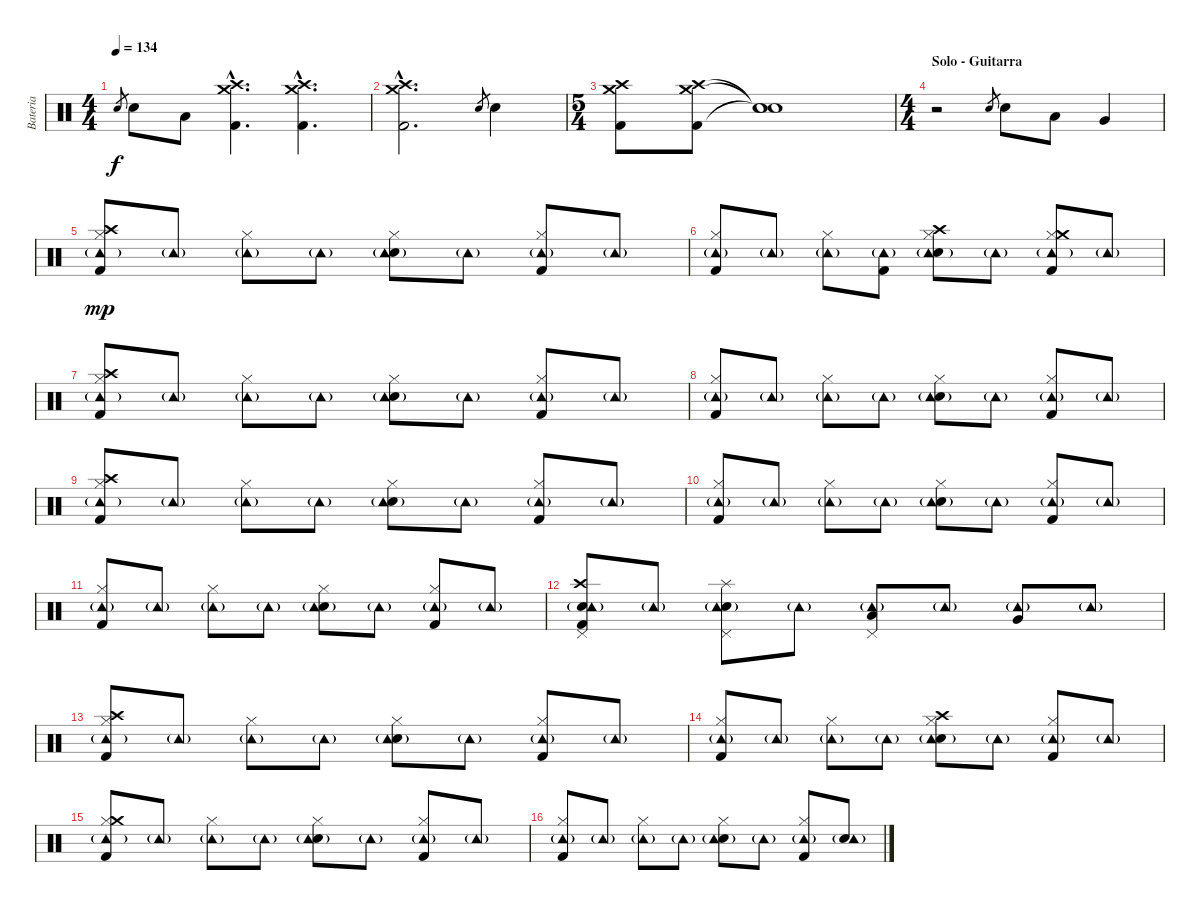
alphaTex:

\track ("Bateria" "Bateria") {instrument percussion}
\staff {score}
\articulation defaults
\ts (4 4)
\tempo 134
\clef neutral
\ks c "Electric Snare (hit)".8{gr dy f} "Electric Snare (hit)".8 "Low Tom (hit)".8
("Kick (hit) 2"{hac} "Crash medium (hit)"{hac} "Crash high (hit)"{hac}).4{d} ("Kick (hit) 2"{hac} "Crash medium (hit)"{hac} "Crash high (hit)"{hac}).4{d} |
("Kick (hit) 2"{hac} "Crash medium (hit)"{hac} "Crash high (hit)"{hac}).2{d} "Electric Snare (hit)".8{gr} "Electric Snare (hit)".4 |
\ts (5 4)
("Kick (hit) 2" "Crash medium (hit)" "Crash high (hit)").8 ("Kick (hit) 2" "Crash medium (hit)" "Crash high (hit)").8 ("Snare (hit)"{t} "Snare (hit)"{t} "Snare (hit)"{t}).1 |
\ts (4 4)
\section ("" "Solo - Guitarra")
r.2 "Electric Snare (hit)".8{gr} "Electric Snare (hit)".8 "Low Tom (hit)".8 "Very Low Tom (hit)".4 |
("Hi-Hat (closed)" "Kick (hit) 2" "Tambourine (hit)"{g} "Crash high (hit)").8{dy mp} "Tambourine (hit)"{g}.8 ("Hi-Hat (closed)" "Tambourine (hit)"{g}).8 "Tambourine (hit)"{g}.8 ("Hi-Hat (closed)" "Electric Snare (hit)" "Tambourine (hit)"{g}).8 "Tambourine (hit)"{g}.8 ("Hi-Hat (closed)" "Kick (hit) 2" "Tambourine (hit)"{g}).8 "Tambourine (hit)"{g}.8 |
("Hi-Hat (closed)" "Kick (hit) 2" "Tambourine (hit)"{g}).8 "Tambourine (hit)"{g}.8 ("Hi-Hat (closed)" "Tambourine (hit)"{g}).8 ("Kick (hit) 2" "Tambourine (hit)"{g}).8 ("Hi-Hat (closed)" "Electric Snare (hit)" "Tambourine (hit)"{g} "Crash high (hit)").8 "Tambourine (hit)"{g}.8 ("Hi-Hat (closed)" "Kick (hit) 2" "Tambourine (hit)"{g} "Crash medium (hit)").8 "Tambourine (hit)"{g}.8 |
("Hi-Hat (closed)" "Kick (hit) 2" "Tambourine (hit)"{g} "Crash high (hit)").8 "Tambourine (hit)"{g}.8 ("Hi-Hat (closed)" "Tambourine (hit)"{g}).8 "Tambourine (hit)"{g}.8 ("Hi-Hat (closed)" "Electric Snare (hit)" "Tambourine (hit)"{g}).8 "Tambourine (hit)"{g}.8 ("Hi-Hat (closed)" "Kick (hit) 2" "Tambourine (hit)"{g}).8 "Tambourine (hit)"{g}.8 |
("Hi-Hat (closed)" "Kick (hit) 2" "Tambourine (hit)"{g}).8 "Tambourine (hit)"{g}.8 ("Hi-Hat (closed)" "Tambourine (hit)"{g}).8 "Tambourine (hit)"{g}.8 ("Hi-Hat (closed)" "Electric Snare (hit)" "Tambourine (hit)"{g}).8 "Tambourine (hit)"{g}.8 ("Hi-Hat (closed)" "Kick (hit) 2" "Tambourine (hit)"{g}).8 "Tambourine (hit)"{g}.8 |
("Hi-Hat (closed)" "Kick (hit) 2" "Tambourine (hit)"{g} "Crash high (hit)").8 "Tambourine (hit)"{g}.8 ("Hi-Hat (closed)" "Tambourine (hit)"{g}).8 "Tambourine (hit)"{g}.8 ("Hi-Hat (closed)" "Electric Snare (hit)" "Tambourine (hit)"{g}).8 "Tambourine (hit)"{g}.8 ("Hi-Hat (closed)" "Kick (hit) 2" "Tambourine (hit)"{g}).8 "Tambourine (hit)"{g}.8 |
("Hi-Hat (closed)" "Kick (hit) 2" "Tambourine (hit)"{g}).8 "Tambourine (hit)"{g}.8 ("Hi-Hat (closed)" "Tambourine (hit)"{g}).8 "Tambourine (hit)"{g}.8 ("Hi-Hat (closed)" "Electric Snare (hit)" "Tambourine (hit)"{g}).8 "Tambourine (hit)"{g}.8 ("Hi-Hat (closed)" "Kick (hit) 2" "Tambourine (hit)"{g}).8 "Tambourine (hit)"{g}.8 |
("Hi-Hat (closed)" "Kick (hit) 2" "Tambourine (hit)"{g}).8 "Tambourine (hit)"{g}.8 ("Hi-Hat (closed)" "Tambourine (hit)"{g}).8 "Tambourine (hit)"{g}.8 ("Hi-Hat (closed)" "Electric Snare (hit)" "Tambourine (hit)"{g}).8 "Tambourine (hit)"{g}.8 ("Hi-Hat (closed)" "Kick (hit) 2" "Tambourine (hit)"{g}).8 "Tambourine (hit)"{g}.8 |
("Pedal Hi-Hat (hit)" "Electric Snare (hit)" "Kick (hit) 2" "Tambourine (hit)"{g} "Crash high (hit)").8 "Tambourine (hit)"{g}.8 ("Pedal Hi-Hat (hit)" "Electric Snare (hit)" "Tambourine (hit)"{g} "Splash (hit)").8 "Tambourine (hit)"{g}.8 ("Pedal Hi-Hat (hit)" "Low Tom (hit)" "Tambourine (hit)"{g}).8 "Tambourine (hit)"{g}.8 ("Very Low Tom (hit)" "Tambourine (hit)"{g}).8 "Tambourine (hit)"{g}.8 |
("Hi-Hat (closed)" "Kick (hit) 2" "Tambourine (hit)"{g} "Crash high (hit)").8 "Tambourine (hit)"{g}.8 ("Hi-Hat (closed)" "Tambourine (hit)"{g}).8 "Tambourine (hit)"{g}.8 ("Hi-Hat (closed)" "Electric Snare (hit)" "Tambourine (hit)"{g}).8 "Tambourine (hit)"{g}.8 ("Hi-Hat (closed)" "Kick (hit) 2" "Tambourine (hit)"{g}).8 "Tambourine (hit)"{g}.8 |
("Hi-Hat (closed)" "Kick (hit) 2" "Tambourine (hit)"{g}).8 "Tambourine (hit)"{g}.8 ("Hi-Hat (closed)" "Tambourine (hit)"{g}).8 "Tambourine (hit)"{g}.8 ("Hi-Hat (closed)" "Electric Snare (hit)" "Tambourine (hit)"{g} "Crash high (hit)").8 "Tambourine (hit)"{g}.8 ("Hi-Hat (closed)" "Kick (hit) 2" "Tambourine (hit)"{g}).8 "Tambourine (hit)"{g}.8 |
("Hi-Hat (closed)" "Kick (hit) 2" "Tambourine (hit)"{g} "Crash medium (hit)").8 "Tambourine (hit)"{g}.8 ("Hi-Hat (closed)" "Tambourine (hit)"{g}).8 "Tambourine (hit)"{g}.8 ("Hi-Hat (closed)" "Electric Snare (hit)" "Tambourine (hit)"{g}).8 "Tambourine (hit)"{g}.8 ("Hi-Hat (closed)" "Kick (hit) 2" "Tambourine (hit)"{g}).8 "Tambourine (hit)"{g}.8 |
("Hi-Hat (closed)" "Kick (hit) 2" "Tambourine (hit)"{g}).8 "Tambourine (hit)"{g}.8 ("Hi-Hat (closed)" "Tambourine (hit)"{g}).8 "Tambourine (hit)"{g}.8 ("Hi-Hat (closed)" "Electric Snare (hit)" "Tambourine (hit)"{g}).8 "Tambourine (hit)"{g}.8 ("Hi-Hat (closed)" "Kick (hit) 2" "Tambourine (hit)"{g}).8 ("Electric Snare (hit)" "Tambourine (hit)"{g}).8
